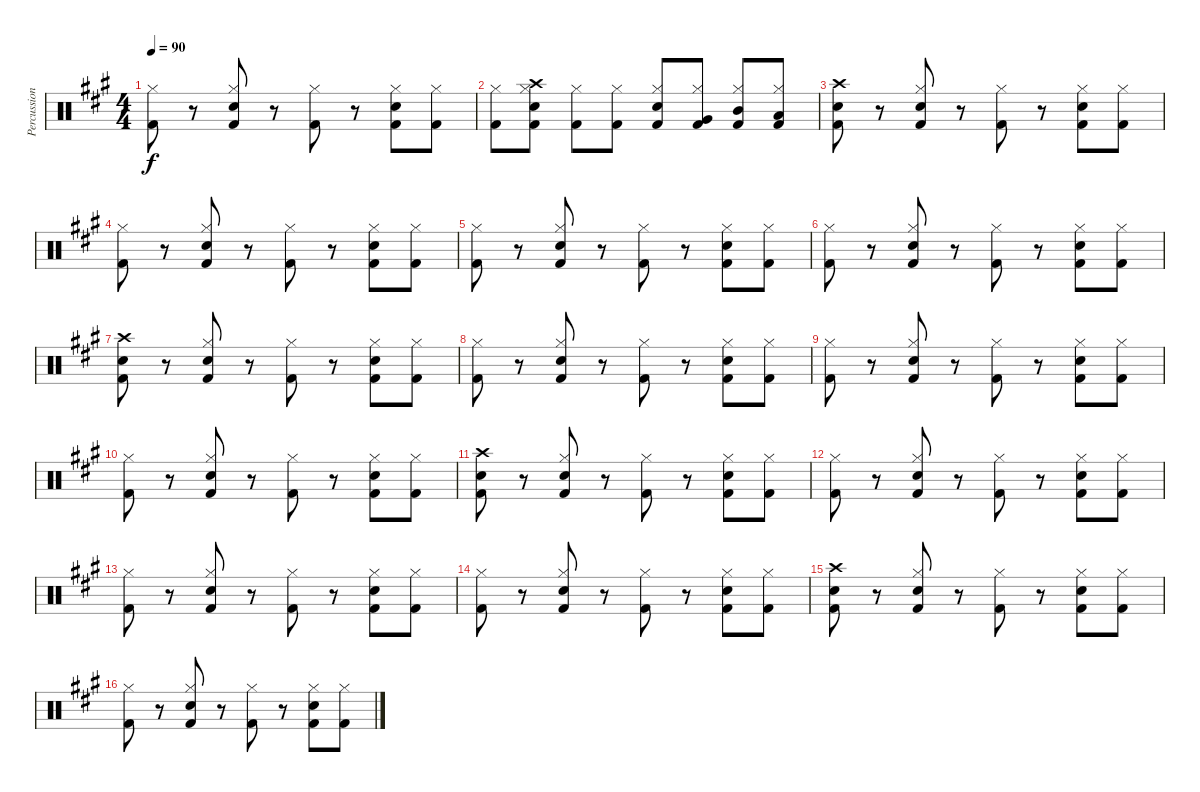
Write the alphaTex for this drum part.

\track ("Percussion" "Percussion") {instrument percussion}
\staff {score}
\articulation defaults
\ts (4 4)
\tempo 90
\clef neutral
\ks a
("Kick (hit) 2" "Hi-Hat (closed)").8{dy f} r.8 ("Kick (hit) 2" "Snare (hit) 2" "Hi-Hat (closed)").8 r.8 ("Kick (hit) 2" "Hi-Hat (closed)").8 r.8 ("Kick (hit) 2" "Snare (hit) 2" "Hi-Hat (closed)").8 ("Kick (hit) 2" "Hi-Hat (closed)").8 |
("Kick (hit) 2" "Hi-Hat (closed)").8 ("Kick (hit) 2" "Snare (hit) 2" "Hi-Hat (closed)" "Crash high (hit)").8 ("Kick (hit) 2" "Hi-Hat (closed)").8 ("Kick (hit) 2" "Hi-Hat (closed)").8 ("Kick (hit) 2" "Snare (hit) 2" "Hi-Hat (closed)").8 ("Kick (hit) 2" "Very Low Tom (hit)" "Hi-Hat (closed)").8 ("Kick (hit) 2" "Mid Tom (hit)" "Hi-Hat (closed)").8 ("Kick (hit) 2" "Low Tom (hit)" "Hi-Hat (closed)").8 |
("Kick (hit) 2" "Snare (hit) 2" "Crash high (hit)").8 r.8 ("Kick (hit) 2" "Snare (hit) 2" "Hi-Hat (closed)").8 r.8 ("Kick (hit) 2" "Hi-Hat (closed)").8 r.8 ("Kick (hit) 2" "Snare (hit) 2" "Hi-Hat (closed)").8 ("Kick (hit) 2" "Hi-Hat (closed)").8 |
("Kick (hit) 2" "Hi-Hat (closed)").8 r.8 ("Kick (hit) 2" "Snare (hit) 2" "Hi-Hat (closed)").8 r.8 ("Kick (hit) 2" "Hi-Hat (closed)").8 r.8 ("Kick (hit) 2" "Snare (hit) 2" "Hi-Hat (closed)").8 ("Kick (hit) 2" "Hi-Hat (closed)").8 |
("Kick (hit) 2" "Hi-Hat (closed)").8 r.8 ("Kick (hit) 2" "Snare (hit) 2" "Hi-Hat (closed)").8 r.8 ("Kick (hit) 2" "Hi-Hat (closed)").8 r.8 ("Kick (hit) 2" "Snare (hit) 2" "Hi-Hat (closed)").8 ("Kick (hit) 2" "Hi-Hat (closed)").8 |
("Kick (hit) 2" "Hi-Hat (closed)").8 r.8 ("Kick (hit) 2" "Snare (hit) 2" "Hi-Hat (closed)").8 r.8 ("Kick (hit) 2" "Hi-Hat (closed)").8 r.8 ("Kick (hit) 2" "Snare (hit) 2" "Hi-Hat (closed)").8 ("Kick (hit) 2" "Hi-Hat (closed)").8 |
("Kick (hit) 2" "Snare (hit) 2" "Crash high (hit)").8 r.8 ("Kick (hit) 2" "Snare (hit) 2" "Hi-Hat (closed)").8 r.8 ("Kick (hit) 2" "Hi-Hat (closed)").8 r.8 ("Kick (hit) 2" "Snare (hit) 2" "Hi-Hat (closed)").8 ("Kick (hit) 2" "Hi-Hat (closed)").8 |
("Kick (hit) 2" "Hi-Hat (closed)").8 r.8 ("Kick (hit) 2" "Snare (hit) 2" "Hi-Hat (closed)").8 r.8 ("Kick (hit) 2" "Hi-Hat (closed)").8 r.8 ("Kick (hit) 2" "Snare (hit) 2" "Hi-Hat (closed)").8 ("Kick (hit) 2" "Hi-Hat (closed)").8 |
("Kick (hit) 2" "Hi-Hat (closed)").8 r.8 ("Kick (hit) 2" "Snare (hit) 2" "Hi-Hat (closed)").8 r.8 ("Kick (hit) 2" "Hi-Hat (closed)").8 r.8 ("Kick (hit) 2" "Snare (hit) 2" "Hi-Hat (closed)").8 ("Kick (hit) 2" "Hi-Hat (closed)").8 |
("Kick (hit) 2" "Hi-Hat (closed)").8 r.8 ("Kick (hit) 2" "Snare (hit) 2" "Hi-Hat (closed)").8 r.8 ("Kick (hit) 2" "Hi-Hat (closed)").8 r.8 ("Kick (hit) 2" "Snare (hit) 2" "Hi-Hat (closed)").8 ("Kick (hit) 2" "Hi-Hat (closed)").8 |
("Kick (hit) 2" "Snare (hit) 2" "Crash high (hit)").8 r.8 ("Kick (hit) 2" "Snare (hit) 2" "Hi-Hat (closed)").8 r.8 ("Kick (hit) 2" "Hi-Hat (closed)").8 r.8 ("Kick (hit) 2" "Snare (hit) 2" "Hi-Hat (closed)").8 ("Kick (hit) 2" "Hi-Hat (closed)").8 |
("Kick (hit) 2" "Hi-Hat (closed)").8 r.8 ("Kick (hit) 2" "Snare (hit) 2" "Hi-Hat (closed)").8 r.8 ("Kick (hit) 2" "Hi-Hat (closed)").8 r.8 ("Kick (hit) 2" "Snare (hit) 2" "Hi-Hat (closed)").8 ("Kick (hit) 2" "Hi-Hat (closed)").8 |
("Kick (hit) 2" "Hi-Hat (closed)").8 r.8 ("Kick (hit) 2" "Snare (hit) 2" "Hi-Hat (closed)").8 r.8 ("Kick (hit) 2" "Hi-Hat (closed)").8 r.8 ("Kick (hit) 2" "Snare (hit) 2" "Hi-Hat (closed)").8 ("Kick (hit) 2" "Hi-Hat (closed)").8 |
("Kick (hit) 2" "Hi-Hat (closed)").8 r.8 ("Kick (hit) 2" "Snare (hit) 2" "Hi-Hat (closed)").8 r.8 ("Kick (hit) 2" "Hi-Hat (closed)").8 r.8 ("Kick (hit) 2" "Snare (hit) 2" "Hi-Hat (closed)").8 ("Kick (hit) 2" "Hi-Hat (closed)").8 |
("Kick (hit) 2" "Snare (hit) 2" "Crash high (hit)").8 r.8 ("Kick (hit) 2" "Snare (hit) 2" "Hi-Hat (closed)").8 r.8 ("Kick (hit) 2" "Hi-Hat (closed)").8 r.8 ("Kick (hit) 2" "Snare (hit) 2" "Hi-Hat (closed)").8 ("Kick (hit) 2" "Hi-Hat (closed)").8 |
("Kick (hit) 2" "Hi-Hat (closed)").8 r.8 ("Kick (hit) 2" "Snare (hit) 2" "Hi-Hat (closed)").8 r.8 ("Kick (hit) 2" "Hi-Hat (closed)").8 r.8 ("Kick (hit) 2" "Snare (hit) 2" "Hi-Hat (closed)").8 ("Kick (hit) 2" "Hi-Hat (closed)").8
